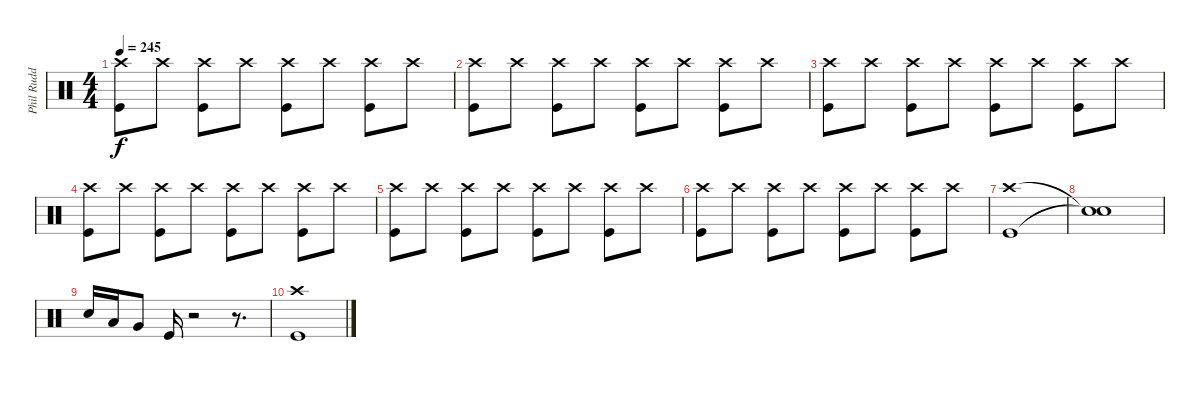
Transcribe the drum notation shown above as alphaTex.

\track ("Phil Rudd" "Phil Rudd") {instrument percussion}
\staff {score}
\articulation defaults
\ts (4 4)
\tempo 245
\clef neutral
\ks c
("Crash high (hit)" "Kick (hit)").8{dy f} "Crash high (hit)".8 ("Crash high (hit)" "Kick (hit)").8 "Crash high (hit)".8 ("Crash high (hit)" "Kick (hit)").8 "Crash high (hit)".8 ("Crash high (hit)" "Kick (hit)").8 "Crash high (hit)".8 |
("Crash high (hit)" "Kick (hit)").8 "Crash high (hit)".8 ("Crash high (hit)" "Kick (hit)").8 "Crash high (hit)".8 ("Crash high (hit)" "Kick (hit)").8 "Crash high (hit)".8 ("Crash high (hit)" "Kick (hit)").8 "Crash high (hit)".8 |
("Crash high (hit)" "Kick (hit)").8 "Crash high (hit)".8 ("Crash high (hit)" "Kick (hit)").8 "Crash high (hit)".8 ("Crash high (hit)" "Kick (hit)").8 "Crash high (hit)".8 ("Crash high (hit)" "Kick (hit)").8 "Crash high (hit)".8 |
("Crash high (hit)" "Kick (hit)").8 "Crash high (hit)".8 ("Crash high (hit)" "Kick (hit)").8 "Crash high (hit)".8 ("Crash high (hit)" "Kick (hit)").8 "Crash high (hit)".8 ("Crash high (hit)" "Kick (hit)").8 "Crash high (hit)".8 |
("Crash high (hit)" "Kick (hit)").8 "Crash high (hit)".8 ("Crash high (hit)" "Kick (hit)").8 "Crash high (hit)".8 ("Crash high (hit)" "Kick (hit)").8 "Crash high (hit)".8 ("Crash high (hit)" "Kick (hit)").8 "Crash high (hit)".8 |
("Crash high (hit)" "Kick (hit)").8 "Crash high (hit)".8 ("Crash high (hit)" "Kick (hit)").8 "Crash high (hit)".8 ("Crash high (hit)" "Kick (hit)").8 "Crash high (hit)".8 ("Crash high (hit)" "Kick (hit)").8 "Crash high (hit)".8 |
("Crash high (hit)" "Kick (hit)").1 |
("Snare (hit)"{t} "Snare (hit)"{t}).1 |
"Snare (hit) 2".16 "Low Tom (hit)".16 "Very Low Tom (hit)".8 "Kick (hit)".16 r.2 r.8{d} |
("Crash high (hit)" "Kick (hit)").1
